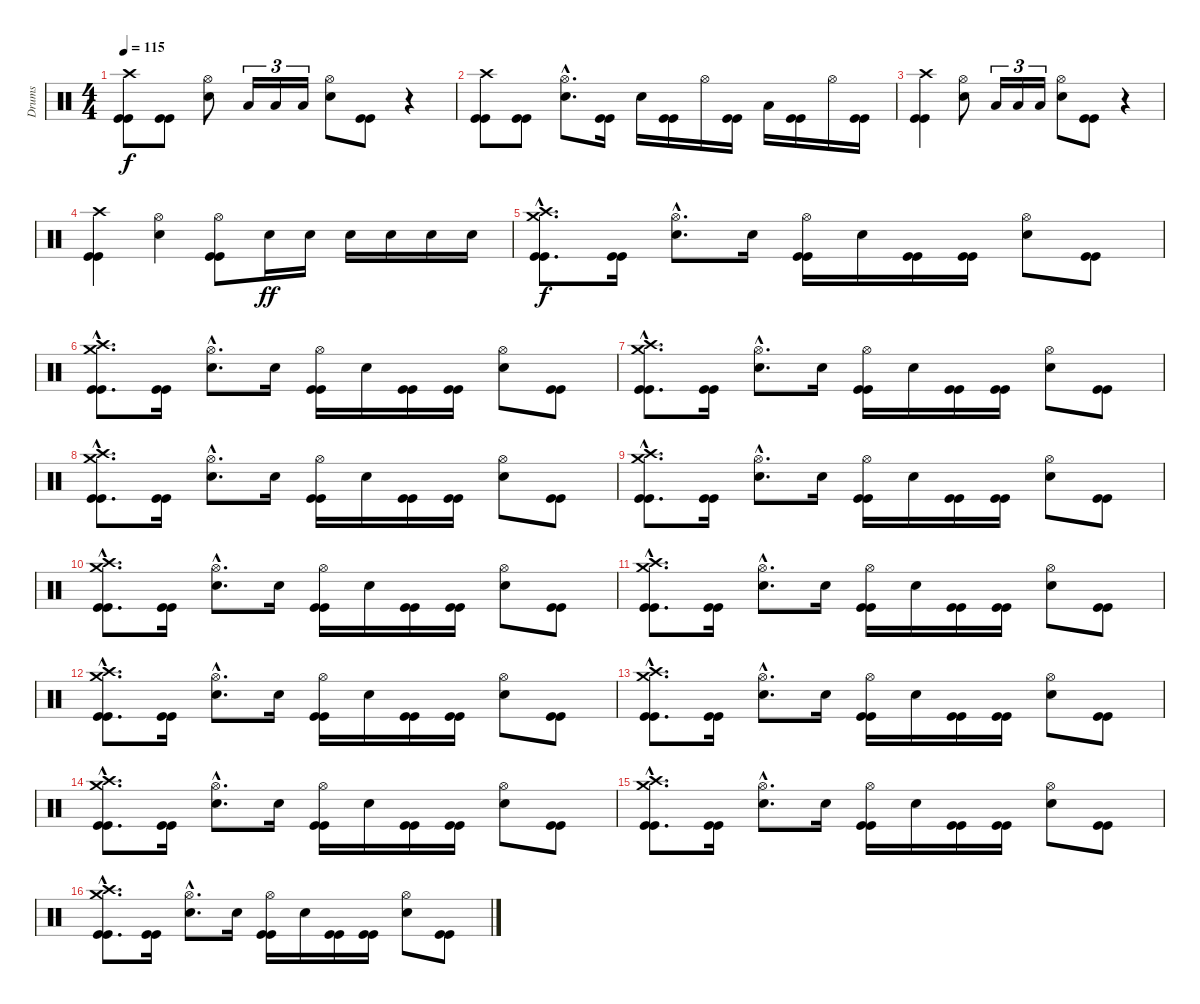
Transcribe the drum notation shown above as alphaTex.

\track ("Drums" "Drums") {instrument percussion}
\staff {score}
\articulation defaults
\ts (4 4)
\tempo 115
\clef neutral
\ks c
("Crash high (hit)" "Kick (hit)" "Kick (hit)").8{dy f} ("Kick (hit)" "Kick (hit)").8 ("Hi-Hat (open)" "Electric Snare (hit)").8 "Low Tom (hit)".16{tu (3 2)} "Low Tom (hit)".16{tu (3 2)} "Low Tom (hit)".16{tu (3 2)} ("Hi-Hat (open)" "Electric Snare (hit)").8 ("Kick (hit)" "Kick (hit)").8 r.4 |
("Crash high (hit)" "Kick (hit)" "Kick (hit)").8 ("Kick (hit)" "Kick (hit)").8 ("Hi-Hat (open)"{hac} "Electric Snare (hit)"{hac}).8{d} ("Kick (hit)" "Kick (hit)").16 "Electric Snare (hit)".16 ("Kick (hit)" "Kick (hit)").16 "Hi-Hat (open)".16 ("Kick (hit)" "Kick (hit)").16 "Low Tom (hit)".16 ("Kick (hit)" "Kick (hit)").16 "Hi-Hat (open)".16 ("Kick (hit)" "Kick (hit)").16 |
("Crash high (hit)" "Kick (hit)" "Kick (hit)").4 ("Hi-Hat (open)" "Electric Snare (hit)").8 "Low Tom (hit)".16{tu (3 2)} "Low Tom (hit)".16{tu (3 2)} "Low Tom (hit)".16{tu (3 2)} ("Hi-Hat (open)" "Electric Snare (hit)").8 ("Kick (hit)" "Kick (hit)").8 r.4 |
("Crash high (hit)" "Kick (hit)" "Kick (hit)").4 ("Hi-Hat (open)" "Electric Snare (hit)").4 ("Hi-Hat (open)" "Kick (hit)" "Kick (hit)").8 "Electric Snare (hit)".16{dy ff} "Electric Snare (hit)".16 "Electric Snare (hit)".16 "Electric Snare (hit)".16 "Electric Snare (hit)".16 "Electric Snare (hit)".16 |
("Crash high (hit)"{hac} "Crash medium (hit)"{hac} "Kick (hit)"{hac} "Kick (hit)"{hac}).8{d dy f} ("Kick (hit)" "Kick (hit)").16 ("Hi-Hat (open)"{hac} "Electric Snare (hit)"{hac}).8{d} "Electric Snare (hit)".16 ("Hi-Hat (open)" "Kick (hit)" "Kick (hit)").16 "Electric Snare (hit)".16 ("Kick (hit)" "Kick (hit)").16 ("Kick (hit)" "Kick (hit)").16 ("Hi-Hat (open)" "Electric Snare (hit)").8 ("Kick (hit)" "Kick (hit)").8 |
("Crash high (hit)"{hac} "Crash medium (hit)"{hac} "Kick (hit)"{hac} "Kick (hit)"{hac}).8{d} ("Kick (hit)" "Kick (hit)").16 ("Hi-Hat (open)"{hac} "Electric Snare (hit)"{hac}).8{d} "Electric Snare (hit)".16 ("Hi-Hat (open)" "Kick (hit)" "Kick (hit)").16 "Electric Snare (hit)".16 ("Kick (hit)" "Kick (hit)").16 ("Kick (hit)" "Kick (hit)").16 ("Hi-Hat (open)" "Electric Snare (hit)").8 ("Kick (hit)" "Kick (hit)").8 |
("Crash high (hit)"{hac} "Crash medium (hit)"{hac} "Kick (hit)"{hac} "Kick (hit)"{hac}).8{d} ("Kick (hit)" "Kick (hit)").16 ("Hi-Hat (open)"{hac} "Electric Snare (hit)"{hac}).8{d} "Electric Snare (hit)".16 ("Hi-Hat (open)" "Kick (hit)" "Kick (hit)").16 "Electric Snare (hit)".16 ("Kick (hit)" "Kick (hit)").16 ("Kick (hit)" "Kick (hit)").16 ("Hi-Hat (open)" "Electric Snare (hit)").8 ("Kick (hit)" "Kick (hit)").8 |
("Crash high (hit)"{hac} "Crash medium (hit)"{hac} "Kick (hit)"{hac} "Kick (hit)"{hac}).8{d} ("Kick (hit)" "Kick (hit)").16 ("Hi-Hat (open)"{hac} "Electric Snare (hit)"{hac}).8{d} "Electric Snare (hit)".16 ("Hi-Hat (open)" "Kick (hit)" "Kick (hit)").16 "Electric Snare (hit)".16 ("Kick (hit)" "Kick (hit)").16 ("Kick (hit)" "Kick (hit)").16 ("Hi-Hat (open)" "Electric Snare (hit)").8 ("Kick (hit)" "Kick (hit)").8 |
("Crash high (hit)"{hac} "Crash medium (hit)"{hac} "Kick (hit)"{hac} "Kick (hit)"{hac}).8{d} ("Kick (hit)" "Kick (hit)").16 ("Hi-Hat (open)"{hac} "Electric Snare (hit)"{hac}).8{d} "Electric Snare (hit)".16 ("Hi-Hat (open)" "Kick (hit)" "Kick (hit)").16 "Electric Snare (hit)".16 ("Kick (hit)" "Kick (hit)").16 ("Kick (hit)" "Kick (hit)").16 ("Hi-Hat (open)" "Electric Snare (hit)").8 ("Kick (hit)" "Kick (hit)").8 |
("Crash high (hit)"{hac} "Crash medium (hit)"{hac} "Kick (hit)"{hac} "Kick (hit)"{hac}).8{d} ("Kick (hit)" "Kick (hit)").16 ("Hi-Hat (open)"{hac} "Electric Snare (hit)"{hac}).8{d} "Electric Snare (hit)".16 ("Hi-Hat (open)" "Kick (hit)" "Kick (hit)").16 "Electric Snare (hit)".16 ("Kick (hit)" "Kick (hit)").16 ("Kick (hit)" "Kick (hit)").16 ("Hi-Hat (open)" "Electric Snare (hit)").8 ("Kick (hit)" "Kick (hit)").8 |
("Crash high (hit)"{hac} "Crash medium (hit)"{hac} "Kick (hit)"{hac} "Kick (hit)"{hac}).8{d} ("Kick (hit)" "Kick (hit)").16 ("Hi-Hat (open)"{hac} "Electric Snare (hit)"{hac}).8{d} "Electric Snare (hit)".16 ("Hi-Hat (open)" "Kick (hit)" "Kick (hit)").16 "Electric Snare (hit)".16 ("Kick (hit)" "Kick (hit)").16 ("Kick (hit)" "Kick (hit)").16 ("Hi-Hat (open)" "Electric Snare (hit)").8 ("Kick (hit)" "Kick (hit)").8 |
("Crash high (hit)"{hac} "Crash medium (hit)"{hac} "Kick (hit)"{hac} "Kick (hit)"{hac}).8{d} ("Kick (hit)" "Kick (hit)").16 ("Hi-Hat (open)"{hac} "Electric Snare (hit)"{hac}).8{d} "Electric Snare (hit)".16 ("Hi-Hat (open)" "Kick (hit)" "Kick (hit)").16 "Electric Snare (hit)".16 ("Kick (hit)" "Kick (hit)").16 ("Kick (hit)" "Kick (hit)").16 ("Hi-Hat (open)" "Electric Snare (hit)").8 ("Kick (hit)" "Kick (hit)").8 |
("Crash high (hit)"{hac} "Crash medium (hit)"{hac} "Kick (hit)"{hac} "Kick (hit)"{hac}).8{d} ("Kick (hit)" "Kick (hit)").16 ("Hi-Hat (open)"{hac} "Electric Snare (hit)"{hac}).8{d} "Electric Snare (hit)".16 ("Hi-Hat (open)" "Kick (hit)" "Kick (hit)").16 "Electric Snare (hit)".16 ("Kick (hit)" "Kick (hit)").16 ("Kick (hit)" "Kick (hit)").16 ("Hi-Hat (open)" "Electric Snare (hit)").8 ("Kick (hit)" "Kick (hit)").8 |
("Crash high (hit)"{hac} "Crash medium (hit)"{hac} "Kick (hit)"{hac} "Kick (hit)"{hac}).8{d} ("Kick (hit)" "Kick (hit)").16 ("Hi-Hat (open)"{hac} "Electric Snare (hit)"{hac}).8{d} "Electric Snare (hit)".16 ("Hi-Hat (open)" "Kick (hit)" "Kick (hit)").16 "Electric Snare (hit)".16 ("Kick (hit)" "Kick (hit)").16 ("Kick (hit)" "Kick (hit)").16 ("Hi-Hat (open)" "Electric Snare (hit)").8 ("Kick (hit)" "Kick (hit)").8 |
("Crash high (hit)"{hac} "Crash medium (hit)"{hac} "Kick (hit)"{hac} "Kick (hit)"{hac}).8{d} ("Kick (hit)" "Kick (hit)").16 ("Hi-Hat (open)"{hac} "Electric Snare (hit)"{hac}).8{d} "Electric Snare (hit)".16 ("Hi-Hat (open)" "Kick (hit)" "Kick (hit)").16 "Electric Snare (hit)".16 ("Kick (hit)" "Kick (hit)").16 ("Kick (hit)" "Kick (hit)").16 ("Hi-Hat (open)" "Electric Snare (hit)").8 ("Kick (hit)" "Kick (hit)").8 |
("Crash high (hit)"{hac} "Crash medium (hit)"{hac} "Kick (hit)"{hac} "Kick (hit)"{hac}).8{d} ("Kick (hit)" "Kick (hit)").16 ("Hi-Hat (open)"{hac} "Electric Snare (hit)"{hac}).8{d} "Electric Snare (hit)".16 ("Hi-Hat (open)" "Kick (hit)" "Kick (hit)").16 "Electric Snare (hit)".16 ("Kick (hit)" "Kick (hit)").16 ("Kick (hit)" "Kick (hit)").16 ("Hi-Hat (open)" "Electric Snare (hit)").8 ("Kick (hit)" "Kick (hit)").8
